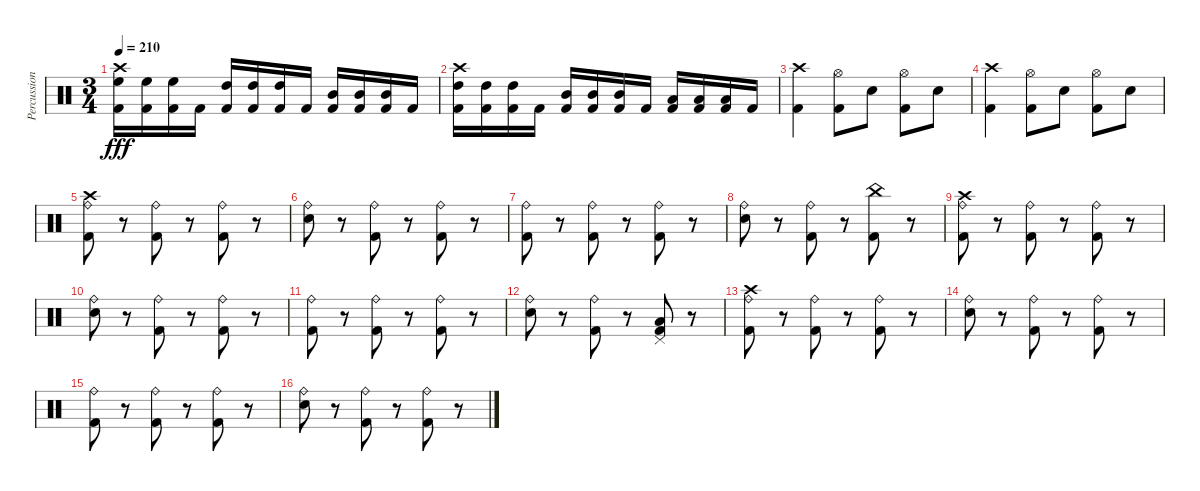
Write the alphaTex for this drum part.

\track ("Percussion" "Percussion") {instrument percussion}
\staff {score}
\articulation defaults
\ts (3 4)
\tempo 210
\clef neutral
\ks c
("Crash high (hit)" "High Floor Tom (hit)" "Kick (hit) 2").16{dy fff} ("High Floor Tom (hit)" "Kick (hit) 2").16 ("High Floor Tom (hit)" "Kick (hit) 2").16 "Kick (hit) 2".16 ("High Tom (hit)" "Kick (hit) 2").16 ("High Tom (hit)" "Kick (hit) 2").16 ("High Tom (hit)" "Kick (hit) 2").16 "Kick (hit) 2".16 ("Mid Tom (hit)" "Kick (hit) 2").16 ("Mid Tom (hit)" "Kick (hit) 2").16 ("Mid Tom (hit)" "Kick (hit) 2").16 "Kick (hit) 2".16 |
("Crash high (hit)" "High Tom (hit)" "Kick (hit) 2").16 ("High Tom (hit)" "Kick (hit) 2").16 ("High Tom (hit)" "Kick (hit) 2").16 "Kick (hit) 2".16 ("Mid Tom (hit)" "Kick (hit) 2").16 ("Mid Tom (hit)" "Kick (hit) 2").16 ("Mid Tom (hit)" "Kick (hit) 2").16 "Kick (hit) 2".16 ("Low Tom (hit)" "Kick (hit) 2").16 ("Low Tom (hit)" "Kick (hit) 2").16 ("Low Tom (hit)" "Kick (hit) 2").16 "Kick (hit) 2".16 |
("Crash high (hit)" "Kick (hit) 2").4 ("Hi-Hat (open)" "Kick (hit) 2").8 "Electric Snare (hit)".8 ("Hi-Hat (open)" "Kick (hit) 2").8 "Electric Snare (hit)".8 |
("Crash high (hit)" "Kick (hit) 2").4 ("Hi-Hat (open)" "Kick (hit) 2").8 "Electric Snare (hit)".8 ("Hi-Hat (open)" "Kick (hit) 2").8 "Electric Snare (hit)".8 |
("Crash high (hit)" "Ride (bell)" "Kick (hit) 2").8 r.8 ("Ride (bell)" "Kick (hit) 2").8 r.8 ("Ride (bell)" "Kick (hit) 2").8 r.8 |
("Ride (bell)" "Electric Snare (hit)").8 r.8 ("Ride (bell)" "Kick (hit) 2").8 r.8 ("Ride (bell)" "Kick (hit) 2").8 r.8 |
("Ride (bell)" "Kick (hit) 2").8 r.8 ("Ride (bell)" "Kick (hit) 2").8 r.8 ("Ride (bell)" "Kick (hit) 2").8 r.8 |
("Ride (bell)" "Electric Snare (hit)").8 r.8 ("Ride (bell)" "Kick (hit) 2").8 r.8 ("China (hit)" "Kick (hit) 2").8 r.8 |
("Crash high (hit)" "Ride (bell)" "Kick (hit) 2").8 r.8 ("Ride (bell)" "Kick (hit) 2").8 r.8 ("Ride (bell)" "Kick (hit) 2").8 r.8 |
("Ride (bell)" "Electric Snare (hit)").8 r.8 ("Ride (bell)" "Kick (hit) 2").8 r.8 ("Ride (bell)" "Kick (hit) 2").8 r.8 |
("Ride (bell)" "Kick (hit) 2").8 r.8 ("Ride (bell)" "Kick (hit) 2").8 r.8 ("Ride (bell)" "Kick (hit) 2").8 r.8 |
("Ride (bell)" "Electric Snare (hit)").8 r.8 ("Ride (bell)" "Kick (hit) 2").8 r.8 ("Pedal Hi-Hat (hit)" "Low Floor Tom (hit)" "Kick (hit) 2").8 r.8 |
("Crash high (hit)" "Ride (bell)" "Kick (hit) 2").8 r.8 ("Ride (bell)" "Kick (hit) 2").8 r.8 ("Ride (bell)" "Kick (hit) 2").8 r.8 |
("Ride (bell)" "Electric Snare (hit)").8 r.8 ("Ride (bell)" "Kick (hit) 2").8 r.8 ("Ride (bell)" "Kick (hit) 2").8 r.8 |
("Ride (bell)" "Kick (hit) 2").8 r.8 ("Ride (bell)" "Kick (hit) 2").8 r.8 ("Ride (bell)" "Kick (hit) 2").8 r.8 |
("Ride (bell)" "Electric Snare (hit)").8 r.8 ("Ride (bell)" "Kick (hit) 2").8 r.8 ("Ride (bell)" "Kick (hit) 2").8 r.8
